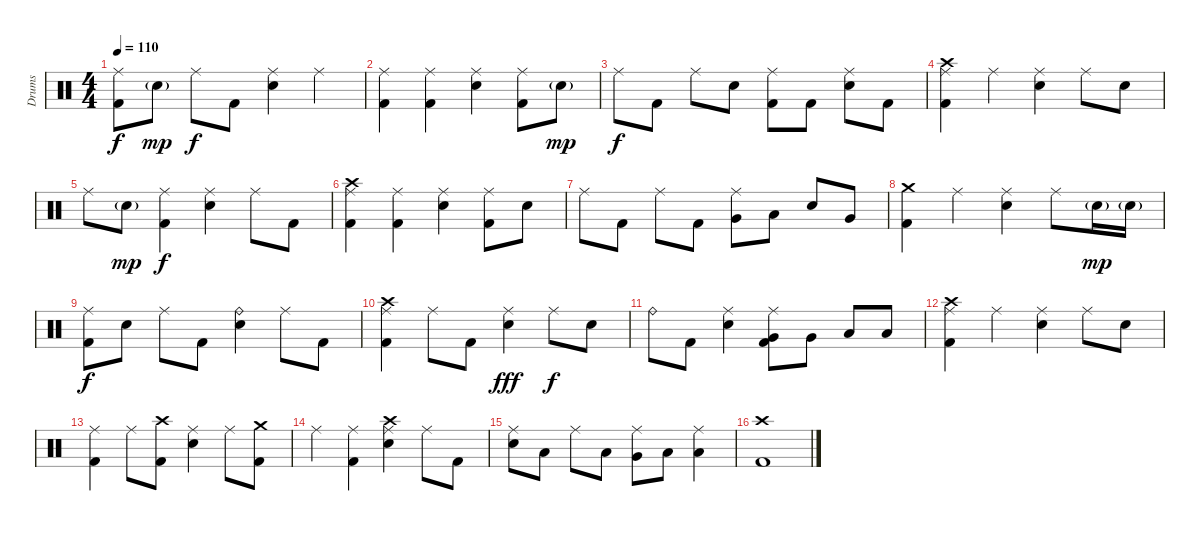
\track ("Drums" "Drums") {instrument percussion}
\staff {score}
\articulation defaults
\ts (4 4)
\tempo 110
\clef neutral
\ks c
("Ride (middle)" "Kick (hit) 2").8{dy f} "Electric Snare (hit)"{g}.8{dy mp} "Ride (middle)".8{dy f} "Kick (hit) 2".8 ("Ride (middle)" "Electric Snare (hit)").4 "Ride (middle)".4 |
("Ride (middle)" "Kick (hit) 2").4 ("Ride (middle)" "Kick (hit) 2").4 ("Ride (middle)" "Electric Snare (hit)").4 ("Ride (middle)" "Kick (hit) 2").8 "Electric Snare (hit)"{g}.8{dy mp} |
"Ride (middle)".8{dy f} "Kick (hit) 2".8 "Ride (middle)".8 "Electric Snare (hit)".8 ("Ride (middle)" "Kick (hit) 2").8 "Kick (hit) 2".8 ("Ride (middle)" "Electric Snare (hit)").8 "Kick (hit) 2".8 |
("Crash high (hit)" "Ride (middle)" "Kick (hit) 2").4 "Ride (middle)".4 ("Ride (middle)" "Electric Snare (hit)").4 "Ride (middle)".8 "Electric Snare (hit)".8 |
"Ride (middle)".8 "Electric Snare (hit)"{g}.8{dy mp} ("Ride (middle)" "Kick (hit) 2").4{dy f} ("Ride (middle)" "Electric Snare (hit)").4 "Ride (middle)".8 "Kick (hit) 2".8 |
("Crash high (hit)" "Ride (middle)" "Kick (hit) 2").4 ("Ride (middle)" "Kick (hit) 2").4 ("Ride (middle)" "Electric Snare (hit)").4 ("Ride (middle)" "Kick (hit) 2").8 "Electric Snare (hit)".8 |
"Ride (middle)".8 "Kick (hit) 2".8 "Ride (middle)".8 "Kick (hit) 2".8 ("Ride (middle)" "Very Low Tom (hit)").8 "Low Floor Tom (hit)".8 "Electric Snare (hit)".8 "Very Low Tom (hit)".8 |
("Crash medium (hit)" "Kick (hit) 2").4 "Ride (middle)".4 ("Ride (middle)" "Electric Snare (hit)").4 "Ride (middle)".8 "Electric Snare (hit)"{g}.16{dy mp} "Electric Snare (hit)"{g}.16 |
("Ride (middle)" "Kick (hit) 2").8{dy f} "Electric Snare (hit)".8 "Ride (middle)".8 "Kick (hit) 2".8 ("Ride (bell)" "Electric Snare (hit)").4 "Ride (middle)".8 "Kick (hit) 2".8 |
("Crash high (hit)" "Ride (middle)" "Kick (hit) 2").4 "Ride (middle)".8 "Kick (hit) 2".8 ("Ride (middle)" "Electric Snare (hit)").4{dy fff} "Ride (middle)".8{dy f} "Electric Snare (hit)".8 |
"Ride (bell)".8 "Kick (hit) 2".8 ("Ride (middle)" "Electric Snare (hit)").4 ("Ride (middle)" "Very Low Tom (hit)" "Kick (hit) 2").8 "Very Low Tom (hit)".8 "Low Floor Tom (hit)".8 "Low Floor Tom (hit)".8 |
("Crash high (hit)" "Ride (middle)" "Kick (hit) 2").4 "Ride (middle)".4 ("Ride (middle)" "Electric Snare (hit)").4 "Ride (middle)".8 "Electric Snare (hit)".8 |
("Ride (middle)" "Kick (hit) 2").4 "Ride (middle)".8 ("Crash high (hit)" "Kick (hit) 2").8 ("Ride (middle)" "Electric Snare (hit)").4 "Ride (middle)".8 ("Crash medium (hit)" "Kick (hit) 2").8 |
"Ride (middle)".4 ("Ride (middle)" "Kick (hit) 2").4 ("Crash high (hit)" "Ride (middle)" "Electric Snare (hit)").4 "Ride (middle)".8 "Kick (hit) 2".8 |
("Ride (middle)" "Electric Snare (hit)").8 "Low Floor Tom (hit)".8 "Ride (middle)".8 "Low Tom (hit)".8 ("Ride (middle)" "Very Low Tom (hit)").8 "Low Floor Tom (hit)".8 ("Ride (middle)" "Low Floor Tom (hit)").4 |
("Crash high (hit)" "Kick (hit) 2").1
